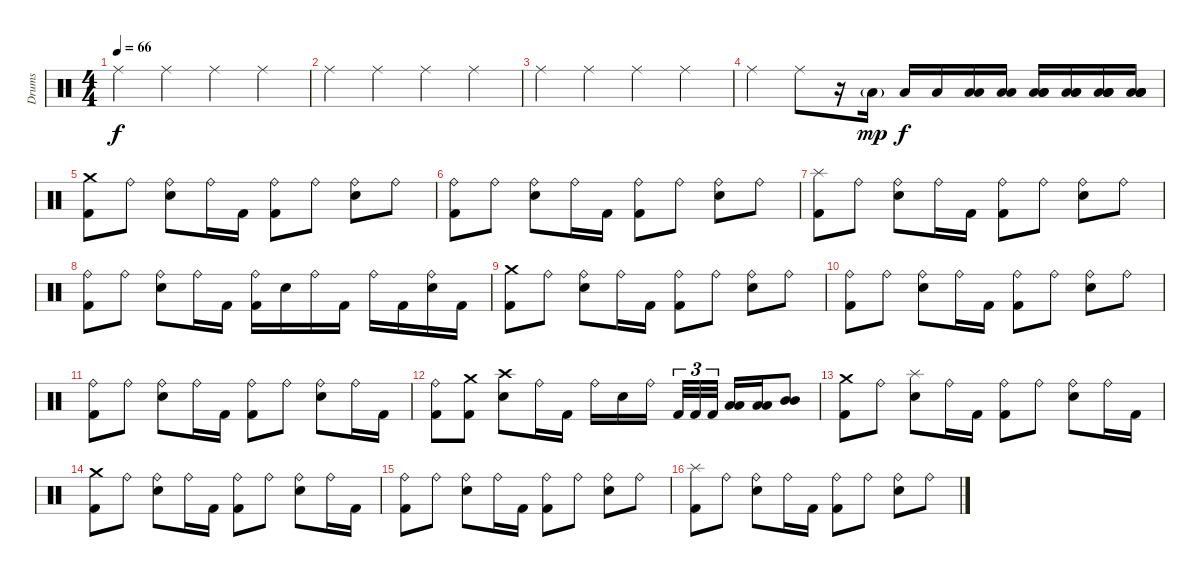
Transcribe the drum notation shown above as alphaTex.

\track ("Drums" "Drums") {instrument percussion}
\staff {score}
\articulation defaults
\ts (4 4)
\tempo 66
\clef neutral
\ks c "Ride (middle)".4{dy f} "Ride (middle)".4 "Ride (middle)".4 "Ride (middle)".4
|
"Ride (middle)".4 "Ride (middle)".4 "Ride (middle)".4 "Ride (middle)".4 |
"Ride (middle)".4 "Ride (middle)".4 "Ride (middle)".4 "Ride (middle)".4 |
"Ride (middle)".4 "Ride (middle)".8 r.16 "Low Floor Tom (hit)"{g}.16{dy mp} "Low Floor Tom (hit)".16{dy f} "Low Floor Tom (hit)".16 ("Low Floor Tom (hit)" "Low Floor Tom (hit)").16 ("Low Floor Tom (hit)" "Low Floor Tom (hit)").16 ("Low Floor Tom (hit)" "Low Floor Tom (hit)" "Low Floor Tom (hit)").16 ("Low Floor Tom (hit)" "Low Floor Tom (hit)" "Low Floor Tom (hit)").16 ("Low Floor Tom (hit)" "Low Floor Tom (hit)" "Low Floor Tom (hit)" "Low Floor Tom (hit)").16 ("Low Floor Tom (hit)" "Low Floor Tom (hit)" "Low Floor Tom (hit)" "Low Floor Tom (hit)").16 |
("Crash medium (hit)" "Kick (hit) 2").8 "Ride (bell)".8 ("Ride (bell)" "Snare (hit) 2").8 "Ride (bell)".16 "Kick (hit) 2".16 ("Ride (bell)" "Kick (hit) 2").8 "Ride (bell)".8 ("Ride (bell)" "Snare (hit) 2").8 "Ride (bell)".8 |
("Ride (bell)" "Kick (hit) 2").8 "Ride (bell)".8 ("Ride (bell)" "Snare (hit) 2").8 "Ride (bell)".16 "Kick (hit) 2".16 ("Ride (bell)" "Kick (hit) 2").8 "Ride (bell)".8 ("Ride (bell)" "Snare (hit) 2").8 "Ride (bell)".8 |
("Splash (hit)" "Kick (hit) 2").8 "Ride (bell)".8 ("Ride (bell)" "Snare (hit) 2").8 "Ride (bell)".16 "Kick (hit) 2".16 ("Ride (bell)" "Kick (hit) 2").8 "Ride (bell)".8 ("Ride (bell)" "Snare (hit) 2").8 "Ride (bell)".8 |
("Ride (bell)" "Kick (hit) 2").8 "Ride (bell)".8 ("Ride (bell)" "Snare (hit) 2").8 "Ride (bell)".16 "Kick (hit) 2".16 ("Ride (bell)" "Kick (hit) 2").16 "Snare (hit) 2".16 "Ride (bell)".16 "Kick (hit) 2".16 "Ride (bell)".16 "Kick (hit) 2".16 ("Ride (bell)" "Snare (hit) 2").16 "Kick (hit) 2".16 |
("Crash medium (hit)" "Kick (hit) 2").8 "Ride (bell)".8 ("Ride (bell)" "Snare (hit) 2").8 "Ride (bell)".16 "Kick (hit) 2".16 ("Ride (bell)" "Kick (hit) 2").8 "Ride (bell)".8 ("Ride (bell)" "Snare (hit) 2").8 "Ride (bell)".8 |
("Ride (bell)" "Kick (hit) 2").8 "Ride (bell)".8 ("Ride (bell)" "Snare (hit) 2").8 "Ride (bell)".16 "Kick (hit) 2".16 ("Ride (bell)" "Kick (hit) 2").8 "Ride (bell)".8 ("Ride (bell)" "Snare (hit) 2").8 "Ride (bell)".8 |
("Ride (bell)" "Kick (hit) 2").8 "Ride (bell)".8 ("Ride (bell)" "Snare (hit) 2").8 "Ride (bell)".16 "Kick (hit) 2".16 ("Ride (bell)" "Kick (hit) 2").8 "Ride (bell)".8 ("Ride (bell)" "Snare (hit) 2").8 "Ride (bell)".16 "Kick (hit) 2".16 |
("Ride (bell)" "Kick (hit) 2").8 ("Crash medium (hit)" "Kick (hit) 2").8 ("Crash high (hit)" "Snare (hit) 2").8 "Ride (bell)".16 "Kick (hit) 2".16 "Ride (bell)".16 "Snare (hit) 2".16 "Ride (bell)".16 "Kick (hit) 2".32{tu (3 2)} "Kick (hit) 2".32{tu (3 2)} "Kick (hit) 2".32{tu (3 2)} ("Low Tom (hit)" "Low Tom (hit)").16 ("Low Tom (hit)" "Low Tom (hit)").16 ("Mid Tom (hit)" "Mid Tom (hit)").8 |
("Crash medium (hit)" "Kick (hit) 2").8 "Ride (bell)".8 ("Splash (hit)" "Snare (hit) 2").8 "Ride (bell)".16 "Kick (hit) 2".16 ("Ride (bell)" "Kick (hit) 2").8 "Ride (bell)".8 ("Ride (bell)" "Snare (hit) 2").8 "Ride (bell)".16 "Kick (hit) 2".16 |
("Crash medium (hit)" "Kick (hit) 2").8 "Ride (bell)".8 ("Ride (bell)" "Snare (hit) 2").8 "Ride (bell)".16 "Kick (hit) 2".16 ("Ride (bell)" "Kick (hit) 2").8 "Ride (bell)".8 ("Ride (bell)" "Snare (hit) 2").8 "Ride (bell)".16 "Kick (hit) 2".16 |
("Ride (bell)" "Kick (hit) 2").8 "Ride (bell)".8 ("Ride (bell)" "Snare (hit) 2").8 "Ride (bell)".16 "Kick (hit) 2".16 ("Ride (bell)" "Kick (hit) 2").8 "Ride (bell)".8 ("Ride (bell)" "Snare (hit) 2").8 "Ride (bell)".8 |
("Splash (hit)" "Kick (hit) 2").8 "Ride (bell)".8 ("Ride (bell)" "Snare (hit) 2").8 "Ride (bell)".16 "Kick (hit) 2".16 ("Ride (bell)" "Kick (hit) 2").8 "Ride (bell)".8 ("Ride (bell)" "Snare (hit) 2").8 "Ride (bell)".8
